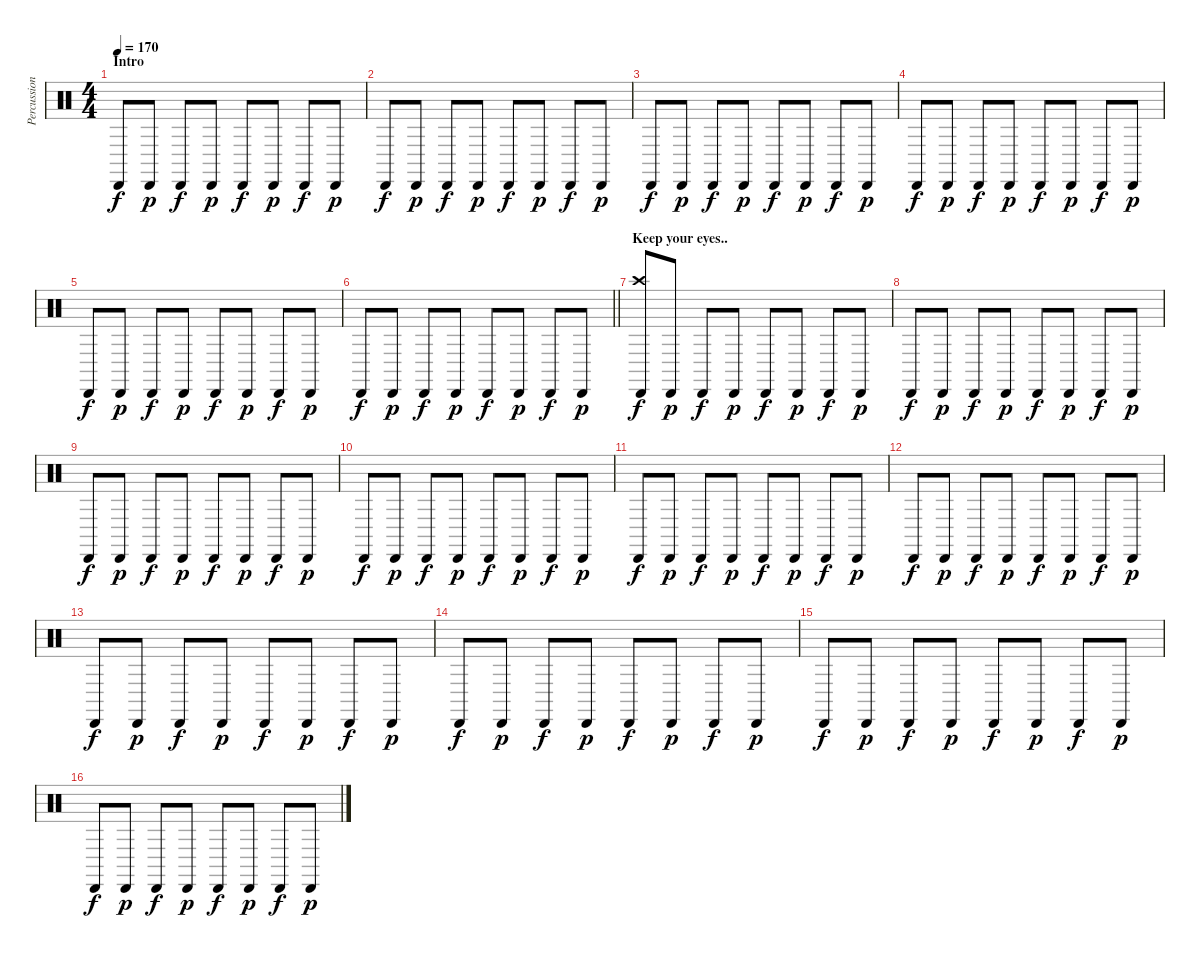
\track ("Percussion" "Percussion") {instrument percussion}
\staff {score}
\articulation defaults
\ts (4 4)
\section ("" "Intro")
\tempo 170
\clef neutral
\ks c "Cabasa (hit)".8{dy f} "Cabasa (hit)".8{dy p} "Cabasa (hit)".8{dy f} "Cabasa (hit)".8{dy p} "Cabasa (hit)".8{dy f} "Cabasa (hit)".8{dy p} "Cabasa (hit)".8{dy f} "Cabasa (hit)".8{dy p}
|
"Cabasa (hit)".8{dy f} "Cabasa (hit)".8{dy p} "Cabasa (hit)".8{dy f} "Cabasa (hit)".8{dy p} "Cabasa (hit)".8{dy f} "Cabasa (hit)".8{dy p} "Cabasa (hit)".8{dy f} "Cabasa (hit)".8{dy p} |
"Cabasa (hit)".8{dy f} "Cabasa (hit)".8{dy p} "Cabasa (hit)".8{dy f} "Cabasa (hit)".8{dy p} "Cabasa (hit)".8{dy f} "Cabasa (hit)".8{dy p} "Cabasa (hit)".8{dy f} "Cabasa (hit)".8{dy p} |
"Cabasa (hit)".8{dy f} "Cabasa (hit)".8{dy p} "Cabasa (hit)".8{dy f} "Cabasa (hit)".8{dy p} "Cabasa (hit)".8{dy f} "Cabasa (hit)".8{dy p} "Cabasa (hit)".8{dy f} "Cabasa (hit)".8{dy p} |
"Cabasa (hit)".8{dy f} "Cabasa (hit)".8{dy p} "Cabasa (hit)".8{dy f} "Cabasa (hit)".8{dy p} "Cabasa (hit)".8{dy f} "Cabasa (hit)".8{dy p} "Cabasa (hit)".8{dy f} "Cabasa (hit)".8{dy p} |
\barLineRight lightlight "Cabasa (hit)".8{dy f} "Cabasa (hit)".8{dy p} "Cabasa (hit)".8{dy f} "Cabasa (hit)".8{dy p} "Cabasa (hit)".8{dy f} "Cabasa (hit)".8{dy p} "Cabasa (hit)".8{dy f} "Cabasa (hit)".8{dy p}
|
\section ("" "Keep your eyes..")
("Cabasa (hit)" "Crash high (hit)").8{dy f} "Cabasa (hit)".8{dy p} "Cabasa (hit)".8{dy f} "Cabasa (hit)".8{dy p} "Cabasa (hit)".8{dy f} "Cabasa (hit)".8{dy p} "Cabasa (hit)".8{dy f} "Cabasa (hit)".8{dy p} |
"Cabasa (hit)".8{dy f} "Cabasa (hit)".8{dy p} "Cabasa (hit)".8{dy f} "Cabasa (hit)".8{dy p} "Cabasa (hit)".8{dy f} "Cabasa (hit)".8{dy p} "Cabasa (hit)".8{dy f} "Cabasa (hit)".8{dy p} |
"Cabasa (hit)".8{dy f} "Cabasa (hit)".8{dy p} "Cabasa (hit)".8{dy f} "Cabasa (hit)".8{dy p} "Cabasa (hit)".8{dy f} "Cabasa (hit)".8{dy p} "Cabasa (hit)".8{dy f} "Cabasa (hit)".8{dy p} |
"Cabasa (hit)".8{dy f} "Cabasa (hit)".8{dy p} "Cabasa (hit)".8{dy f} "Cabasa (hit)".8{dy p} "Cabasa (hit)".8{dy f} "Cabasa (hit)".8{dy p} "Cabasa (hit)".8{dy f} "Cabasa (hit)".8{dy p} |
"Cabasa (hit)".8{dy f} "Cabasa (hit)".8{dy p} "Cabasa (hit)".8{dy f} "Cabasa (hit)".8{dy p} "Cabasa (hit)".8{dy f} "Cabasa (hit)".8{dy p} "Cabasa (hit)".8{dy f} "Cabasa (hit)".8{dy p} |
"Cabasa (hit)".8{dy f} "Cabasa (hit)".8{dy p} "Cabasa (hit)".8{dy f} "Cabasa (hit)".8{dy p} "Cabasa (hit)".8{dy f} "Cabasa (hit)".8{dy p} "Cabasa (hit)".8{dy f} "Cabasa (hit)".8{dy p} |
"Cabasa (hit)".8{dy f} "Cabasa (hit)".8{dy p} "Cabasa (hit)".8{dy f} "Cabasa (hit)".8{dy p} "Cabasa (hit)".8{dy f} "Cabasa (hit)".8{dy p} "Cabasa (hit)".8{dy f} "Cabasa (hit)".8{dy p} |
"Cabasa (hit)".8{dy f} "Cabasa (hit)".8{dy p} "Cabasa (hit)".8{dy f} "Cabasa (hit)".8{dy p} "Cabasa (hit)".8{dy f} "Cabasa (hit)".8{dy p} "Cabasa (hit)".8{dy f} "Cabasa (hit)".8{dy p} |
"Cabasa (hit)".8{dy f} "Cabasa (hit)".8{dy p} "Cabasa (hit)".8{dy f} "Cabasa (hit)".8{dy p} "Cabasa (hit)".8{dy f} "Cabasa (hit)".8{dy p} "Cabasa (hit)".8{dy f} "Cabasa (hit)".8{dy p} |
"Cabasa (hit)".8{dy f} "Cabasa (hit)".8{dy p} "Cabasa (hit)".8{dy f} "Cabasa (hit)".8{dy p} "Cabasa (hit)".8{dy f} "Cabasa (hit)".8{dy p} "Cabasa (hit)".8{dy f} "Cabasa (hit)".8{dy p}
